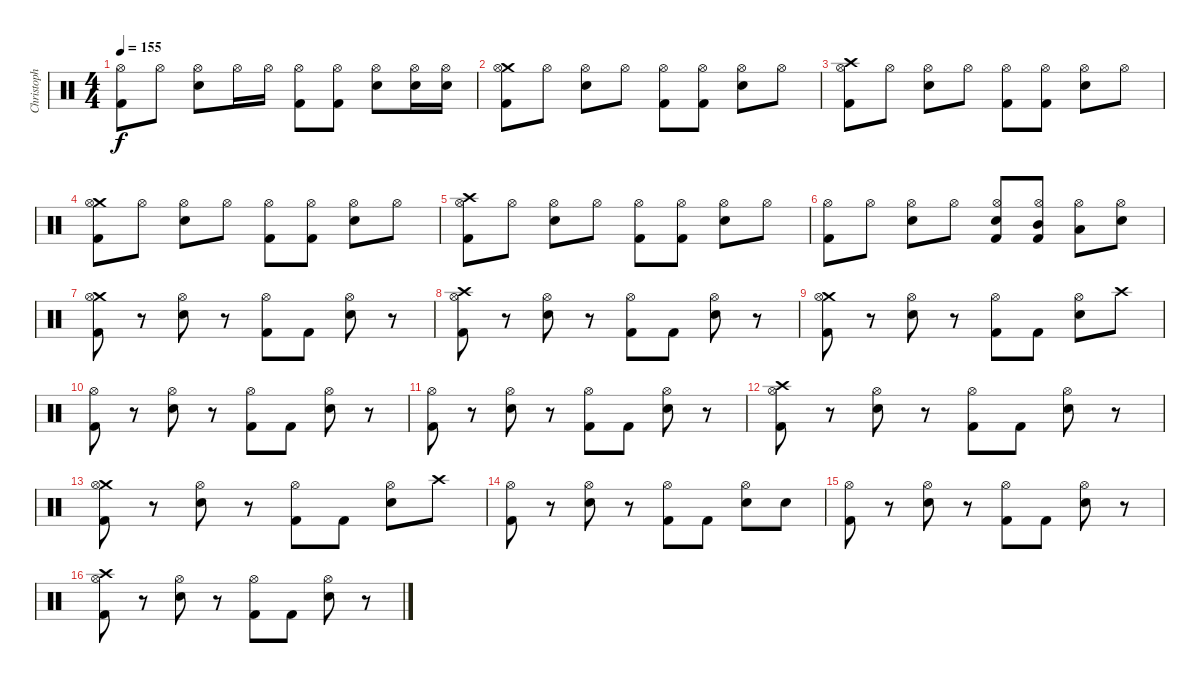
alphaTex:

\track ("Christoph \"Doom\" Schneider" "Christoph ") {instrument percussion}
\staff {score}
\articulation defaults
\ts (4 4)
\tempo 155
\clef neutral
\ks c
("Kick (hit) 2" "Hi-Hat (open)").8{dy f} "Hi-Hat (open)".8 ("Electric Snare (hit)" "Hi-Hat (open)").8 "Hi-Hat (open)".16 "Hi-Hat (open)".16 ("Kick (hit) 2" "Hi-Hat (open)").8 ("Kick (hit) 2" "Hi-Hat (open)").8 ("Electric Snare (hit)" "Hi-Hat (open)").8 ("Electric Snare (hit)" "Hi-Hat (open)").16 ("Electric Snare (hit)" "Hi-Hat (open)").16 |
("Kick (hit) 2" "Crash medium (hit)" "Hi-Hat (open)").8 "Hi-Hat (open)".8 ("Electric Snare (hit)" "Hi-Hat (open)").8 "Hi-Hat (open)".8 ("Kick (hit) 2" "Hi-Hat (open)").8 ("Kick (hit) 2" "Hi-Hat (open)").8 ("Electric Snare (hit)" "Hi-Hat (open)").8 "Hi-Hat (open)".8 |
("Kick (hit) 2" "Crash high (hit)" "Hi-Hat (open)").8 "Hi-Hat (open)".8 ("Electric Snare (hit)" "Hi-Hat (open)").8 "Hi-Hat (open)".8 ("Kick (hit) 2" "Hi-Hat (open)").8 ("Kick (hit) 2" "Hi-Hat (open)").8 ("Electric Snare (hit)" "Hi-Hat (open)").8 "Hi-Hat (open)".8 |
("Kick (hit) 2" "Crash medium (hit)" "Hi-Hat (open)").8 "Hi-Hat (open)".8 ("Electric Snare (hit)" "Hi-Hat (open)").8 "Hi-Hat (open)".8 ("Kick (hit) 2" "Hi-Hat (open)").8 ("Kick (hit) 2" "Hi-Hat (open)").8 ("Electric Snare (hit)" "Hi-Hat (open)").8 "Hi-Hat (open)".8 |
("Kick (hit) 2" "Crash high (hit)" "Hi-Hat (open)").8 "Hi-Hat (open)".8 ("Electric Snare (hit)" "Hi-Hat (open)").8 "Hi-Hat (open)".8 ("Kick (hit) 2" "Hi-Hat (open)").8 ("Kick (hit) 2" "Hi-Hat (open)").8 ("Electric Snare (hit)" "Hi-Hat (open)").8 "Hi-Hat (open)".8 |
("Kick (hit) 2" "Hi-Hat (open)").8 "Hi-Hat (open)".8 ("Electric Snare (hit)" "Hi-Hat (open)").8 "Hi-Hat (open)".8 ("Kick (hit) 2" "Electric Snare (hit)" "Hi-Hat (open)").8 ("Kick (hit) 2" "Mid Tom (hit)" "Hi-Hat (open)").8 ("Low Tom (hit)" "Hi-Hat (open)").8 ("Electric Snare (hit)" "Hi-Hat (open)").8 |
("Kick (hit) 2" "Crash medium (hit)" "Hi-Hat (open)").8 r.8 ("Electric Snare (hit)" "Hi-Hat (open)").8 r.8 ("Kick (hit) 2" "Hi-Hat (open)").8 "Kick (hit) 2".8 ("Electric Snare (hit)" "Hi-Hat (open)").8 r.8 |
("Kick (hit) 2" "Crash high (hit)" "Hi-Hat (open)").8 r.8 ("Electric Snare (hit)" "Hi-Hat (open)").8 r.8 ("Kick (hit) 2" "Hi-Hat (open)").8 "Kick (hit) 2".8 ("Electric Snare (hit)" "Hi-Hat (open)").8 r.8 |
("Kick (hit) 2" "Crash medium (hit)" "Hi-Hat (open)").8 r.8 ("Electric Snare (hit)" "Hi-Hat (open)").8 r.8 ("Kick (hit) 2" "Hi-Hat (open)").8 "Kick (hit) 2".8 ("Electric Snare (hit)" "Hi-Hat (open)").8 "Crash high (hit)".8 |
("Kick (hit) 2" "Hi-Hat (open)").8 r.8 ("Electric Snare (hit)" "Hi-Hat (open)").8 r.8 ("Kick (hit) 2" "Hi-Hat (open)").8 "Kick (hit) 2".8 ("Electric Snare (hit)" "Hi-Hat (open)").8 r.8 |
("Kick (hit) 2" "Hi-Hat (open)").8 r.8 ("Electric Snare (hit)" "Hi-Hat (open)").8 r.8 ("Kick (hit) 2" "Hi-Hat (open)").8 "Kick (hit) 2".8 ("Electric Snare (hit)" "Hi-Hat (open)").8 r.8 |
("Kick (hit) 2" "Crash high (hit)" "Hi-Hat (open)").8 r.8 ("Electric Snare (hit)" "Hi-Hat (open)").8 r.8 ("Kick (hit) 2" "Hi-Hat (open)").8 "Kick (hit) 2".8 ("Electric Snare (hit)" "Hi-Hat (open)").8 r.8 |
("Kick (hit) 2" "Crash medium (hit)" "Hi-Hat (open)").8 r.8 ("Electric Snare (hit)" "Hi-Hat (open)").8 r.8 ("Kick (hit) 2" "Hi-Hat (open)").8 "Kick (hit) 2".8 ("Electric Snare (hit)" "Hi-Hat (open)").8 "Crash high (hit)".8 |
("Kick (hit) 2" "Hi-Hat (open)").8 r.8 ("Electric Snare (hit)" "Hi-Hat (open)").8 r.8 ("Kick (hit) 2" "Hi-Hat (open)").8 "Kick (hit) 2".8 ("Electric Snare (hit)" "Hi-Hat (open)").8 "Electric Snare (hit)".8 |
("Kick (hit) 2" "Hi-Hat (open)").8 r.8 ("Electric Snare (hit)" "Hi-Hat (open)").8 r.8 ("Kick (hit) 2" "Hi-Hat (open)").8 "Kick (hit) 2".8 ("Electric Snare (hit)" "Hi-Hat (open)").8 r.8 |
("Kick (hit) 2" "Crash high (hit)" "Hi-Hat (open)").8 r.8 ("Electric Snare (hit)" "Hi-Hat (open)").8 r.8 ("Kick (hit) 2" "Hi-Hat (open)").8 "Kick (hit) 2".8 ("Electric Snare (hit)" "Hi-Hat (open)").8 r.8
